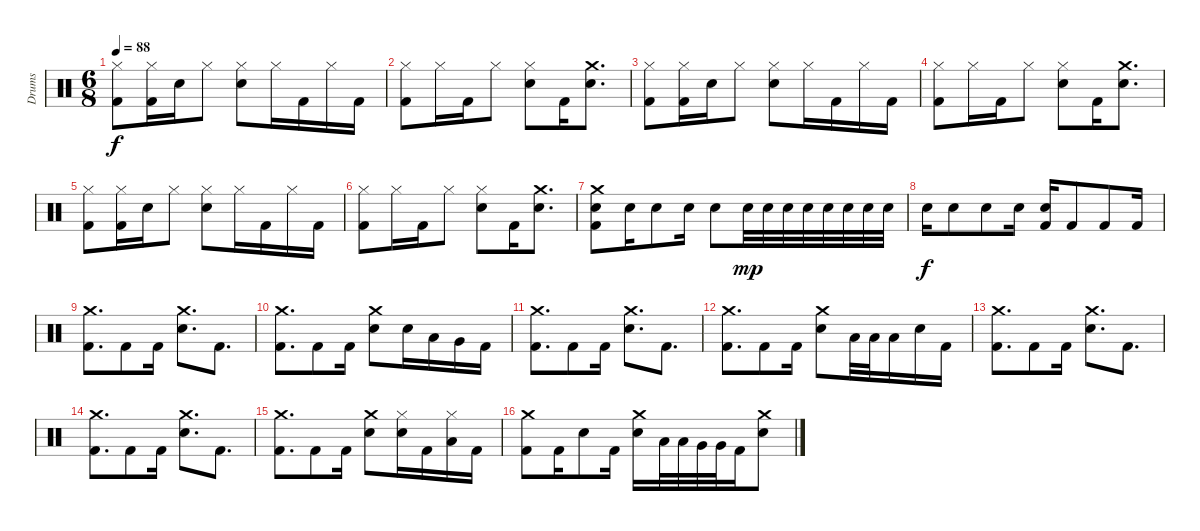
\track ("Drums" "Drums") {instrument percussion}
\staff {score}
\articulation defaults
\ts (6 8)
\tempo 88
\clef neutral
\ks c
("Hi-Hat (closed)" "Kick (hit) 2").8{dy f} ("Hi-Hat (closed)" "Kick (hit) 2").16 "Electric Snare (hit)".16 "Hi-Hat (closed)".8 ("Hi-Hat (closed)" "Electric Snare (hit)").8 "Hi-Hat (closed)".16 "Kick (hit) 2".16 "Hi-Hat (closed)".16 "Kick (hit) 2".16 |
("Hi-Hat (closed)" "Kick (hit) 2").8 "Hi-Hat (closed)".16 "Kick (hit) 2".16 "Hi-Hat (closed)".8 ("Hi-Hat (closed)" "Electric Snare (hit)").8 "Kick (hit) 2".16 ("Crash medium (hit)" "Electric Snare (hit)").8{d} |
("Hi-Hat (closed)" "Kick (hit) 2").8 ("Hi-Hat (closed)" "Kick (hit) 2").16 "Electric Snare (hit)".16 "Hi-Hat (closed)".8 ("Hi-Hat (closed)" "Electric Snare (hit)").8 "Hi-Hat (closed)".16 "Kick (hit) 2".16 "Hi-Hat (closed)".16 "Kick (hit) 2".16 |
("Hi-Hat (closed)" "Kick (hit) 2").8 "Hi-Hat (closed)".16 "Kick (hit) 2".16 "Hi-Hat (closed)".8 ("Hi-Hat (closed)" "Electric Snare (hit)").8 "Kick (hit) 2".16 ("Crash medium (hit)" "Electric Snare (hit)").8{d} |
("Hi-Hat (closed)" "Kick (hit) 2").8 ("Hi-Hat (closed)" "Kick (hit) 2").16 "Electric Snare (hit)".16 "Hi-Hat (closed)".8 ("Hi-Hat (closed)" "Electric Snare (hit)").8 "Hi-Hat (closed)".16 "Kick (hit) 2".16 "Hi-Hat (closed)".16 "Kick (hit) 2".16 |
("Hi-Hat (closed)" "Kick (hit) 2").8 "Hi-Hat (closed)".16 "Kick (hit) 2".16 "Hi-Hat (closed)".8 ("Hi-Hat (closed)" "Electric Snare (hit)").8 "Kick (hit) 2".16 ("Crash medium (hit)" "Electric Snare (hit)").8{d} |
("Crash medium (hit)" "Electric Snare (hit)" "Kick (hit) 2").8 "Electric Snare (hit)".16 "Electric Snare (hit)".8 "Electric Snare (hit)".16 "Electric Snare (hit)".8 "Electric Snare (hit)".32{dy mp} "Electric Snare (hit)".32 "Electric Snare (hit)".32 "Electric Snare (hit)".32 "Electric Snare (hit)".32 "Electric Snare (hit)".32 "Electric Snare (hit)".32 "Electric Snare (hit)".32 |
"Electric Snare (hit)".16{dy f} "Electric Snare (hit)".8 "Electric Snare (hit)".8 "Electric Snare (hit)".16 ("Electric Snare (hit)" "Kick (hit) 2").16 "Kick (hit) 2".8 "Kick (hit) 2".8 "Kick (hit) 2".16 |
("Crash medium (hit)" "Kick (hit) 2").8{d} "Kick (hit) 2".8 "Kick (hit) 2".16 ("Crash medium (hit)" "Electric Snare (hit)").8{d} "Kick (hit) 2".8{d} |
("Crash medium (hit)" "Kick (hit) 2").8{d} "Kick (hit) 2".8 "Kick (hit) 2".16 ("Crash medium (hit)" "Electric Snare (hit)").8 "Electric Snare (hit)".16 "Low Tom (hit)".16 "Very Low Tom (hit)".16 "Kick (hit) 2".16 |
("Crash medium (hit)" "Kick (hit) 2").8{d} "Kick (hit) 2".8 "Kick (hit) 2".16 ("Crash medium (hit)" "Electric Snare (hit)").8{d} "Kick (hit) 2".8{d} |
("Crash medium (hit)" "Kick (hit) 2").8{d} "Kick (hit) 2".8 "Kick (hit) 2".16 ("Crash medium (hit)" "Electric Snare (hit)").8 "Low Tom (hit)".32 "Low Tom (hit)".32 "Low Tom (hit)".16 "Electric Snare (hit)".16 "Kick (hit) 2".16 |
("Crash medium (hit)" "Kick (hit) 2").8{d} "Kick (hit) 2".8 "Kick (hit) 2".16 ("Crash medium (hit)" "Electric Snare (hit)").8{d} "Kick (hit) 2".8{d} |
("Crash medium (hit)" "Kick (hit) 2").8{d} "Kick (hit) 2".8 "Kick (hit) 2".16 ("Crash medium (hit)" "Electric Snare (hit)").8{d} "Kick (hit) 2".8{d} |
("Crash medium (hit)" "Kick (hit) 2").8{d} "Kick (hit) 2".8 "Kick (hit) 2".16 ("Crash medium (hit)" "Electric Snare (hit)").8 ("Hi-Hat (closed)" "Electric Snare (hit)").16 "Kick (hit) 2".16 ("Hi-Hat (closed)" "Low Tom (hit)").16 "Kick (hit) 2".16 |
("Crash medium (hit)" "Kick (hit) 2").8 "Kick (hit) 2".16 "Electric Snare (hit)".8 "Kick (hit) 2".16 ("Crash medium (hit)" "Electric Snare (hit)").16 "Low Tom (hit)".32 "Low Tom (hit)".32 "Very Low Tom (hit)".32 "Very Low Tom (hit)".32 "Kick (hit) 2".16 ("Crash medium (hit)" "Electric Snare (hit)").8
